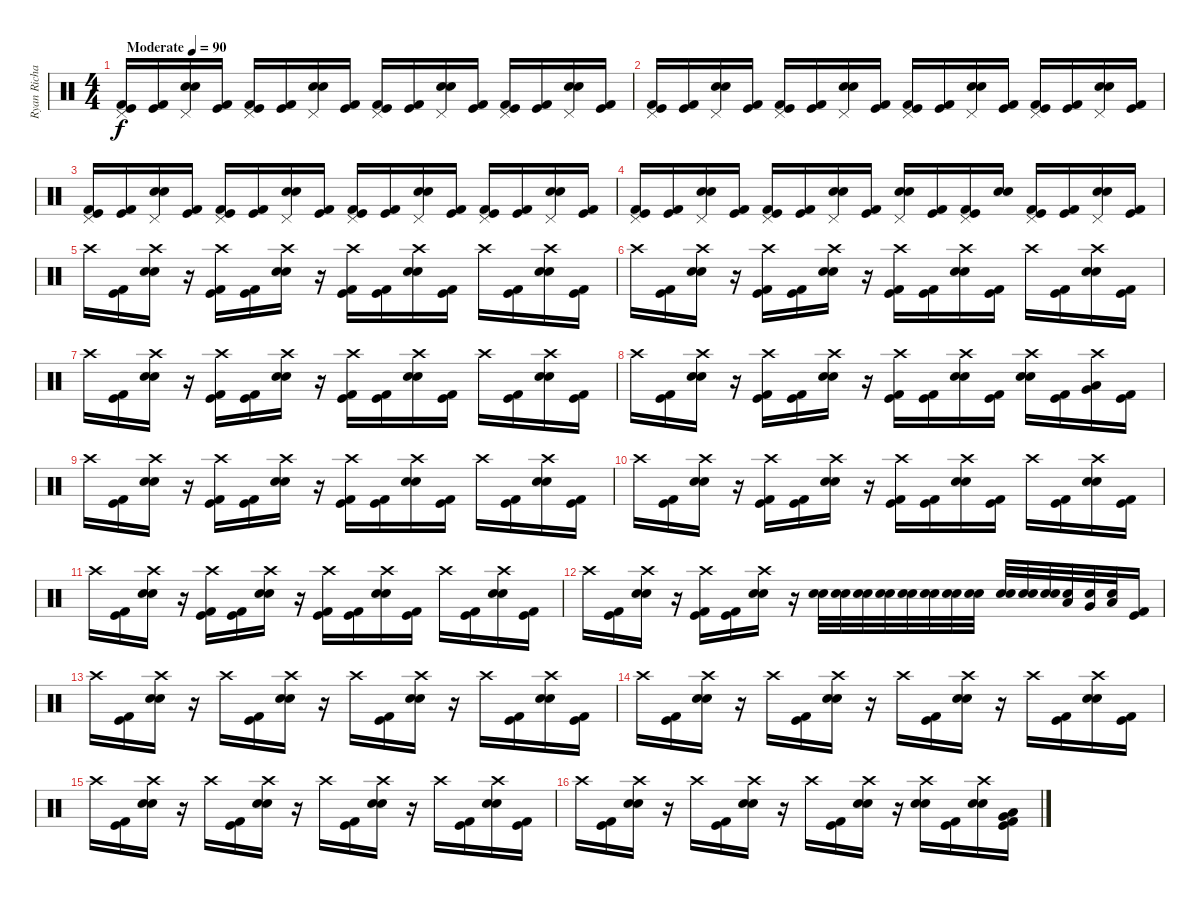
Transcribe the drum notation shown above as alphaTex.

\track ("Ryan Richards" "Ryan Richa") {instrument percussion}
\staff {score}
\articulation defaults
\ts (4 4)
\tempo (90 "Moderate")
\clef neutral
\ks c
("Kick (hit)" "Pedal Hi-Hat (hit)" "Kick (hit) 2").16{dy f} ("Kick (hit)" "Kick (hit) 2").16 ("Snare (hit) 2" "Pedal Hi-Hat (hit)" "Electric Snare (hit)").16 ("Kick (hit)" "Kick (hit) 2").16 ("Kick (hit)" "Pedal Hi-Hat (hit)" "Kick (hit) 2").16 ("Kick (hit)" "Kick (hit) 2").16 ("Snare (hit) 2" "Pedal Hi-Hat (hit)" "Electric Snare (hit)").16 ("Kick (hit)" "Kick (hit) 2").16 ("Kick (hit)" "Pedal Hi-Hat (hit)" "Kick (hit) 2").16 ("Kick (hit)" "Kick (hit) 2").16 ("Snare (hit) 2" "Pedal Hi-Hat (hit)" "Electric Snare (hit)").16 ("Kick (hit)" "Kick (hit) 2").16 ("Kick (hit)" "Pedal Hi-Hat (hit)" "Kick (hit) 2").16 ("Kick (hit)" "Kick (hit) 2").16 ("Snare (hit) 2" "Pedal Hi-Hat (hit)" "Electric Snare (hit)").16 ("Kick (hit)" "Kick (hit) 2").16 |
("Kick (hit)" "Pedal Hi-Hat (hit)" "Kick (hit) 2").16 ("Kick (hit)" "Kick (hit) 2").16 ("Snare (hit) 2" "Pedal Hi-Hat (hit)" "Electric Snare (hit)").16 ("Kick (hit)" "Kick (hit) 2").16 ("Kick (hit)" "Pedal Hi-Hat (hit)" "Kick (hit) 2").16 ("Kick (hit)" "Kick (hit) 2").16 ("Snare (hit) 2" "Pedal Hi-Hat (hit)" "Electric Snare (hit)").16 ("Kick (hit)" "Kick (hit) 2").16 ("Kick (hit)" "Pedal Hi-Hat (hit)" "Kick (hit) 2").16 ("Kick (hit)" "Kick (hit) 2").16 ("Snare (hit) 2" "Pedal Hi-Hat (hit)" "Electric Snare (hit)").16 ("Kick (hit)" "Kick (hit) 2").16 ("Kick (hit)" "Pedal Hi-Hat (hit)" "Kick (hit) 2").16 ("Kick (hit)" "Kick (hit) 2").16 ("Snare (hit) 2" "Pedal Hi-Hat (hit)" "Electric Snare (hit)").16 ("Kick (hit)" "Kick (hit) 2").16 |
("Kick (hit)" "Pedal Hi-Hat (hit)" "Kick (hit) 2").16 ("Kick (hit)" "Kick (hit) 2").16 ("Snare (hit) 2" "Pedal Hi-Hat (hit)" "Electric Snare (hit)").16 ("Kick (hit)" "Kick (hit) 2").16 ("Kick (hit)" "Pedal Hi-Hat (hit)" "Kick (hit) 2").16 ("Kick (hit)" "Kick (hit) 2").16 ("Snare (hit) 2" "Pedal Hi-Hat (hit)" "Electric Snare (hit)").16 ("Kick (hit)" "Kick (hit) 2").16 ("Kick (hit)" "Pedal Hi-Hat (hit)" "Kick (hit) 2").16 ("Kick (hit)" "Kick (hit) 2").16 ("Snare (hit) 2" "Pedal Hi-Hat (hit)" "Electric Snare (hit)").16 ("Kick (hit)" "Kick (hit) 2").16 ("Kick (hit)" "Pedal Hi-Hat (hit)" "Kick (hit) 2").16 ("Kick (hit)" "Kick (hit) 2").16 ("Snare (hit) 2" "Pedal Hi-Hat (hit)" "Electric Snare (hit)").16 ("Kick (hit)" "Kick (hit) 2").16 |
("Kick (hit)" "Pedal Hi-Hat (hit)" "Kick (hit) 2").16 ("Kick (hit)" "Kick (hit) 2").16 ("Snare (hit) 2" "Pedal Hi-Hat (hit)" "Electric Snare (hit)").16 ("Kick (hit)" "Kick (hit) 2").16 ("Kick (hit)" "Pedal Hi-Hat (hit)" "Kick (hit) 2").16 ("Kick (hit)" "Kick (hit) 2").16 ("Snare (hit) 2" "Pedal Hi-Hat (hit)" "Electric Snare (hit)").16 ("Kick (hit)" "Kick (hit) 2").16 ("Snare (hit) 2" "Pedal Hi-Hat (hit)" "Electric Snare (hit)").16 ("Kick (hit)" "Kick (hit) 2").16 ("Kick (hit)" "Pedal Hi-Hat (hit)" "Kick (hit) 2").16 ("Snare (hit) 2" "Electric Snare (hit)").16 ("Kick (hit)" "Pedal Hi-Hat (hit)" "Kick (hit) 2").16 ("Kick (hit)" "Kick (hit) 2").16 ("Snare (hit) 2" "Pedal Hi-Hat (hit)" "Electric Snare (hit)").16 ("Kick (hit)" "Kick (hit) 2").16 |
"Crash high (hit)".16 ("Kick (hit)" "Kick (hit) 2").16 ("Snare (hit) 2" "Crash high (hit)" "Electric Snare (hit)").16 r.16 ("Kick (hit)" "Crash high (hit)" "Kick (hit) 2").16 ("Kick (hit)" "Kick (hit) 2").16 ("Snare (hit) 2" "Crash high (hit)" "Electric Snare (hit)").16 r.16 ("Kick (hit)" "Crash high (hit)" "Kick (hit) 2").16 ("Kick (hit)" "Kick (hit) 2").16 ("Snare (hit) 2" "Crash high (hit)" "Electric Snare (hit)").16 ("Kick (hit)" "Kick (hit) 2").16 "Crash high (hit)".16 ("Kick (hit)" "Kick (hit) 2").16 ("Snare (hit) 2" "Crash high (hit)" "Electric Snare (hit)").16 ("Kick (hit)" "Kick (hit) 2").16 |
"Crash high (hit)".16 ("Kick (hit)" "Kick (hit) 2").16 ("Snare (hit) 2" "Crash high (hit)" "Electric Snare (hit)").16 r.16 ("Kick (hit)" "Crash high (hit)" "Kick (hit) 2").16 ("Kick (hit)" "Kick (hit) 2").16 ("Snare (hit) 2" "Crash high (hit)" "Electric Snare (hit)").16 r.16 ("Kick (hit)" "Crash high (hit)" "Kick (hit) 2").16 ("Kick (hit)" "Kick (hit) 2").16 ("Snare (hit) 2" "Crash high (hit)" "Electric Snare (hit)").16 ("Kick (hit)" "Kick (hit) 2").16 "Crash high (hit)".16 ("Kick (hit)" "Kick (hit) 2").16 ("Snare (hit) 2" "Crash high (hit)" "Electric Snare (hit)").16 ("Kick (hit)" "Kick (hit) 2").16 |
"Crash high (hit)".16 ("Kick (hit)" "Kick (hit) 2").16 ("Snare (hit) 2" "Crash high (hit)" "Electric Snare (hit)").16 r.16 ("Kick (hit)" "Crash high (hit)" "Kick (hit) 2").16 ("Kick (hit)" "Kick (hit) 2").16 ("Snare (hit) 2" "Crash high (hit)" "Electric Snare (hit)").16 r.16 ("Kick (hit)" "Crash high (hit)" "Kick (hit) 2").16 ("Kick (hit)" "Kick (hit) 2").16 ("Snare (hit) 2" "Crash high (hit)" "Electric Snare (hit)").16 ("Kick (hit)" "Kick (hit) 2").16 "Crash high (hit)".16 ("Kick (hit)" "Kick (hit) 2").16 ("Snare (hit) 2" "Crash high (hit)" "Electric Snare (hit)").16 ("Kick (hit)" "Kick (hit) 2").16 |
"Crash high (hit)".16 ("Kick (hit)" "Kick (hit) 2").16 ("Snare (hit) 2" "Crash high (hit)" "Electric Snare (hit)").16 r.16 ("Kick (hit)" "Crash high (hit)" "Kick (hit) 2").16 ("Kick (hit)" "Kick (hit) 2").16 ("Snare (hit) 2" "Crash high (hit)" "Electric Snare (hit)").16 r.16 ("Kick (hit)" "Crash high (hit)" "Kick (hit) 2").16 ("Kick (hit)" "Kick (hit) 2").16 ("Snare (hit) 2" "Crash high (hit)" "Electric Snare (hit)").16 ("Kick (hit)" "Kick (hit) 2").16 ("Snare (hit) 2" "Crash high (hit)" "Electric Snare (hit)").16 ("Kick (hit)" "Kick (hit) 2").16 ("Very Low Tom (hit)" "Crash high (hit)" "Low Floor Tom (hit)").16 ("Kick (hit)" "Kick (hit) 2").16 |
"Crash high (hit)".16 ("Kick (hit)" "Kick (hit) 2").16 ("Snare (hit) 2" "Crash high (hit)" "Electric Snare (hit)").16 r.16 ("Kick (hit)" "Crash high (hit)" "Kick (hit) 2").16 ("Kick (hit)" "Kick (hit) 2").16 ("Snare (hit) 2" "Crash high (hit)" "Electric Snare (hit)").16 r.16 ("Kick (hit)" "Crash high (hit)" "Kick (hit) 2").16 ("Kick (hit)" "Kick (hit) 2").16 ("Snare (hit) 2" "Crash high (hit)" "Electric Snare (hit)").16 ("Kick (hit)" "Kick (hit) 2").16 "Crash high (hit)".16 ("Kick (hit)" "Kick (hit) 2").16 ("Snare (hit) 2" "Crash high (hit)" "Electric Snare (hit)").16 ("Kick (hit)" "Kick (hit) 2").16 |
"Crash high (hit)".16 ("Kick (hit)" "Kick (hit) 2").16 ("Snare (hit) 2" "Crash high (hit)" "Electric Snare (hit)").16 r.16 ("Kick (hit)" "Crash high (hit)" "Kick (hit) 2").16 ("Kick (hit)" "Kick (hit) 2").16 ("Snare (hit) 2" "Crash high (hit)" "Electric Snare (hit)").16 r.16 ("Kick (hit)" "Crash high (hit)" "Kick (hit) 2").16 ("Kick (hit)" "Kick (hit) 2").16 ("Snare (hit) 2" "Crash high (hit)" "Electric Snare (hit)").16 ("Kick (hit)" "Kick (hit) 2").16 "Crash high (hit)".16 ("Kick (hit)" "Kick (hit) 2").16 ("Snare (hit) 2" "Crash high (hit)" "Electric Snare (hit)").16 ("Kick (hit)" "Kick (hit) 2").16 |
"Crash high (hit)".16 ("Kick (hit)" "Kick (hit) 2").16 ("Snare (hit) 2" "Crash high (hit)" "Electric Snare (hit)").16 r.16 ("Kick (hit)" "Crash high (hit)" "Kick (hit) 2").16 ("Kick (hit)" "Kick (hit) 2").16 ("Snare (hit) 2" "Crash high (hit)" "Electric Snare (hit)").16 r.16 ("Kick (hit)" "Crash high (hit)" "Kick (hit) 2").16 ("Kick (hit)" "Kick (hit) 2").16 ("Snare (hit) 2" "Crash high (hit)" "Electric Snare (hit)").16 ("Kick (hit)" "Kick (hit) 2").16 "Crash high (hit)".16 ("Kick (hit)" "Kick (hit) 2").16 ("Snare (hit) 2" "Crash high (hit)" "Electric Snare (hit)").16 ("Kick (hit)" "Kick (hit) 2").16 |
"Crash high (hit)".16 ("Kick (hit)" "Kick (hit) 2").16 ("Snare (hit) 2" "Crash high (hit)" "Electric Snare (hit)").16 r.16 ("Kick (hit)" "Crash high (hit)" "Kick (hit) 2").16 ("Kick (hit)" "Kick (hit) 2").16 ("Snare (hit) 2" "Crash high (hit)" "Electric Snare (hit)").16 r.16 ("Snare (hit) 2" "Electric Snare (hit)").32 ("Snare (hit) 2" "Electric Snare (hit)").32 ("Snare (hit) 2" "Electric Snare (hit)").32 ("Snare (hit) 2" "Electric Snare (hit)").32 ("Snare (hit) 2" "Electric Snare (hit)").32 ("Snare (hit) 2" "Electric Snare (hit)").32 ("Snare (hit) 2" "Electric Snare (hit)").32 ("Snare (hit) 2" "Electric Snare (hit)").32 ("Snare (hit) 2" "Electric Snare (hit)").32 ("Snare (hit) 2" "Electric Snare (hit)").32 ("Snare (hit) 2" "Electric Snare (hit)").32 ("Low Floor Tom (hit)" "Electric Snare (hit)").32 ("Very Low Tom (hit)" "Electric Snare (hit)").32 ("Low Tom (hit)" "Electric Snare (hit)").32 ("Kick (hit)" "Kick (hit) 2").16 |
"Crash high (hit)".16 ("Kick (hit)" "Kick (hit) 2").16 ("Snare (hit) 2" "Crash high (hit)" "Electric Snare (hit)").16 r.16 "Crash high (hit)".16 ("Kick (hit)" "Kick (hit) 2").16 ("Snare (hit) 2" "Crash high (hit)" "Electric Snare (hit)").16 r.16 "Crash high (hit)".16 ("Kick (hit)" "Kick (hit) 2").16 ("Snare (hit) 2" "Crash high (hit)" "Electric Snare (hit)").16 r.16 "Crash high (hit)".16 ("Kick (hit)" "Kick (hit) 2").16 ("Snare (hit) 2" "Crash high (hit)" "Electric Snare (hit)").16 ("Kick (hit)" "Kick (hit) 2").16 |
"Crash high (hit)".16 ("Kick (hit)" "Kick (hit) 2").16 ("Snare (hit) 2" "Crash high (hit)" "Electric Snare (hit)").16 r.16 "Crash high (hit)".16 ("Kick (hit)" "Kick (hit) 2").16 ("Snare (hit) 2" "Crash high (hit)" "Electric Snare (hit)").16 r.16 "Crash high (hit)".16 ("Kick (hit)" "Kick (hit) 2").16 ("Snare (hit) 2" "Crash high (hit)" "Electric Snare (hit)").16 r.16 "Crash high (hit)".16 ("Kick (hit)" "Kick (hit) 2").16 ("Snare (hit) 2" "Crash high (hit)" "Electric Snare (hit)").16 ("Kick (hit)" "Kick (hit) 2").16 |
"Crash high (hit)".16 ("Kick (hit)" "Kick (hit) 2").16 ("Snare (hit) 2" "Crash high (hit)" "Electric Snare (hit)").16 r.16 "Crash high (hit)".16 ("Kick (hit)" "Kick (hit) 2").16 ("Snare (hit) 2" "Crash high (hit)" "Electric Snare (hit)").16 r.16 "Crash high (hit)".16 ("Kick (hit)" "Kick (hit) 2").16 ("Snare (hit) 2" "Crash high (hit)" "Electric Snare (hit)").16 r.16 "Crash high (hit)".16 ("Kick (hit)" "Kick (hit) 2").16 ("Snare (hit) 2" "Crash high (hit)" "Electric Snare (hit)").16 ("Kick (hit)" "Kick (hit) 2").16 |
"Crash high (hit)".16 ("Kick (hit)" "Kick (hit) 2").16 ("Snare (hit) 2" "Crash high (hit)" "Electric Snare (hit)").16 r.16 "Crash high (hit)".16 ("Kick (hit)" "Kick (hit) 2").16 ("Snare (hit) 2" "Crash high (hit)" "Electric Snare (hit)").16 r.16 "Crash high (hit)".16 ("Kick (hit)" "Kick (hit) 2").16 ("Snare (hit) 2" "Crash high (hit)" "Electric Snare (hit)").16 r.16 ("Snare (hit) 2" "Crash high (hit)" "Electric Snare (hit)").16 ("Kick (hit)" "Kick (hit) 2").16 ("Snare (hit) 2" "Crash high (hit)" "Electric Snare (hit)").16 ("Kick (hit)" "Very Low Tom (hit)" "Low Floor Tom (hit)" "Kick (hit) 2").16
